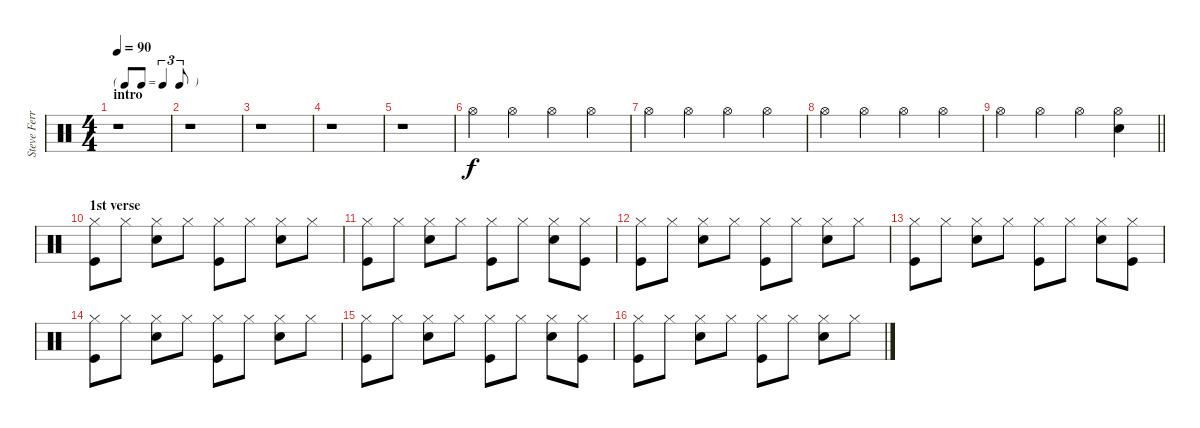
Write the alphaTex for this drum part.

\track ("Steve Ferrone" "Steve Ferr") {instrument percussion}
\staff {score}
\articulation defaults
\ts (4 4)
\tf triplet8th
\section ("" "intro")
\tempo 90
\clef neutral
\ks c
r.1{dy f} |
r.1 |
r.1 |
r.1 |
r.1 |
"Hi-Hat (open)".4 "Hi-Hat (open)".4 "Hi-Hat (open)".4 "Hi-Hat (open)".4 |
"Hi-Hat (open)".4 "Hi-Hat (open)".4 "Hi-Hat (open)".4 "Hi-Hat (open)".4 |
"Hi-Hat (open)".4 "Hi-Hat (open)".4 "Hi-Hat (open)".4 "Hi-Hat (open)".4 |
\barLineRight lightlight "Hi-Hat (open)".4 "Hi-Hat (open)".4 "Hi-Hat (open)".4
("Hi-Hat (open)" "Snare (hit) 2").4 |
\section ("" "1st verse")
("Hi-Hat (closed)" "Kick (hit)").8 "Hi-Hat (closed)".8 ("Hi-Hat (closed)" "Snare (hit) 2").8 "Hi-Hat (closed)".8 ("Hi-Hat (closed)" "Kick (hit)").8 "Hi-Hat (closed)".8 ("Hi-Hat (closed)" "Snare (hit) 2").8 "Hi-Hat (closed)".8 |
("Hi-Hat (closed)" "Kick (hit)").8 "Hi-Hat (closed)".8 ("Hi-Hat (closed)" "Snare (hit) 2").8 "Hi-Hat (closed)".8 ("Hi-Hat (closed)" "Kick (hit)").8 "Hi-Hat (closed)".8 ("Hi-Hat (closed)" "Snare (hit) 2").8 ("Hi-Hat (closed)" "Kick (hit)").8 |
("Hi-Hat (closed)" "Kick (hit)").8 "Hi-Hat (closed)".8 ("Hi-Hat (closed)" "Snare (hit) 2").8 "Hi-Hat (closed)".8 ("Hi-Hat (closed)" "Kick (hit)").8 "Hi-Hat (closed)".8 ("Hi-Hat (closed)" "Snare (hit) 2").8 "Hi-Hat (closed)".8 |
("Hi-Hat (closed)" "Kick (hit)").8 "Hi-Hat (closed)".8 ("Hi-Hat (closed)" "Snare (hit) 2").8 "Hi-Hat (closed)".8 ("Hi-Hat (closed)" "Kick (hit)").8 "Hi-Hat (closed)".8 ("Hi-Hat (closed)" "Snare (hit) 2").8 ("Hi-Hat (closed)" "Kick (hit)").8 |
("Hi-Hat (closed)" "Kick (hit)").8 "Hi-Hat (closed)".8 ("Hi-Hat (closed)" "Snare (hit) 2").8 "Hi-Hat (closed)".8 ("Hi-Hat (closed)" "Kick (hit)").8 "Hi-Hat (closed)".8 ("Hi-Hat (closed)" "Snare (hit) 2").8 "Hi-Hat (closed)".8 |
("Hi-Hat (closed)" "Kick (hit)").8 "Hi-Hat (closed)".8 ("Hi-Hat (closed)" "Snare (hit) 2").8 "Hi-Hat (closed)".8 ("Hi-Hat (closed)" "Kick (hit)").8 "Hi-Hat (closed)".8 ("Hi-Hat (closed)" "Snare (hit) 2").8 ("Hi-Hat (closed)" "Kick (hit)").8 |
("Hi-Hat (closed)" "Kick (hit)").8 "Hi-Hat (closed)".8 ("Hi-Hat (closed)" "Snare (hit) 2").8 "Hi-Hat (closed)".8 ("Hi-Hat (closed)" "Kick (hit)").8 "Hi-Hat (closed)".8 ("Hi-Hat (closed)" "Snare (hit) 2").8 "Hi-Hat (closed)".8
